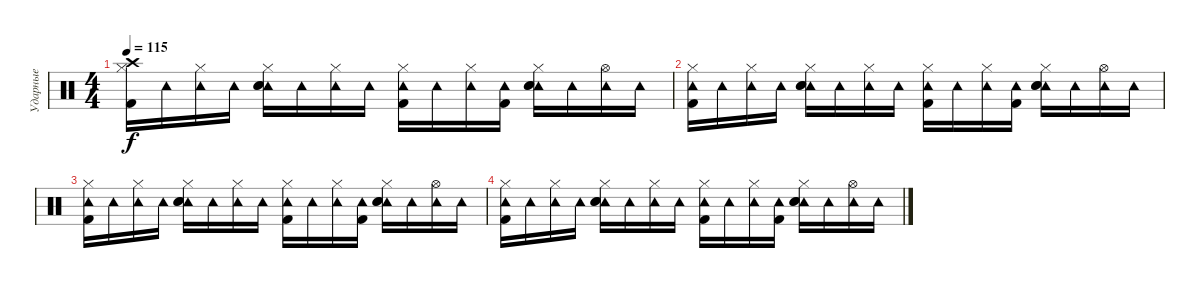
\track ("Ударные" "Ударные") {instrument percussion}
\staff {score}
\articulation defaults
\ts (4 4)
\tempo 115
\clef neutral
\ks c
("Crash high (hit)" "Hi-Hat (closed)" "Kick (hit) 2").16{dy f} "Tambourine (hit)".16 ("Tambourine (hit)" "Hi-Hat (closed)").16 "Tambourine (hit)".16 ("Tambourine (hit)" "Hi-Hat (closed)" "Electric Snare (hit)" "Snare (hit) 2").16 "Tambourine (hit)".16 ("Tambourine (hit)" "Hi-Hat (closed)").16 "Tambourine (hit)".16 ("Tambourine (hit)" "Hi-Hat (closed)" "Kick (hit) 2").16 "Tambourine (hit)".16 ("Tambourine (hit)" "Hi-Hat (closed)").16 ("Tambourine (hit)" "Kick (hit) 2").16 ("Tambourine (hit)" "Hi-Hat (closed)" "Electric Snare (hit)" "Snare (hit) 2").16 "Tambourine (hit)".16 ("Tambourine (hit)" "Hi-Hat (open)").16 "Tambourine (hit)".16 |
("Tambourine (hit)" "Hi-Hat (closed)" "Kick (hit) 2").16 "Tambourine (hit)".16 ("Tambourine (hit)" "Hi-Hat (closed)").16 "Tambourine (hit)".16 ("Tambourine (hit)" "Hi-Hat (closed)" "Electric Snare (hit)" "Snare (hit) 2").16 "Tambourine (hit)".16 ("Tambourine (hit)" "Hi-Hat (closed)").16 "Tambourine (hit)".16 ("Tambourine (hit)" "Hi-Hat (closed)" "Kick (hit) 2").16 "Tambourine (hit)".16 ("Tambourine (hit)" "Hi-Hat (closed)").16 ("Tambourine (hit)" "Kick (hit) 2").16 ("Tambourine (hit)" "Hi-Hat (closed)" "Electric Snare (hit)" "Snare (hit) 2").16 "Tambourine (hit)".16 ("Tambourine (hit)" "Hi-Hat (open)").16 "Tambourine (hit)".16 |
("Tambourine (hit)" "Hi-Hat (closed)" "Kick (hit) 2").16 "Tambourine (hit)".16 ("Tambourine (hit)" "Hi-Hat (closed)").16 "Tambourine (hit)".16 ("Tambourine (hit)" "Hi-Hat (closed)" "Electric Snare (hit)" "Snare (hit) 2").16 "Tambourine (hit)".16 ("Tambourine (hit)" "Hi-Hat (closed)").16 "Tambourine (hit)".16 ("Tambourine (hit)" "Hi-Hat (closed)" "Kick (hit) 2").16 "Tambourine (hit)".16 ("Tambourine (hit)" "Hi-Hat (closed)").16 ("Tambourine (hit)" "Kick (hit) 2").16 ("Tambourine (hit)" "Hi-Hat (closed)" "Electric Snare (hit)" "Snare (hit) 2").16 "Tambourine (hit)".16 ("Tambourine (hit)" "Hi-Hat (open)").16 "Tambourine (hit)".16 |
("Tambourine (hit)" "Hi-Hat (closed)" "Kick (hit) 2").16 "Tambourine (hit)".16 ("Tambourine (hit)" "Hi-Hat (closed)").16 "Tambourine (hit)".16 ("Tambourine (hit)" "Hi-Hat (closed)" "Electric Snare (hit)" "Snare (hit) 2").16 "Tambourine (hit)".16 ("Tambourine (hit)" "Hi-Hat (closed)").16 "Tambourine (hit)".16 ("Tambourine (hit)" "Hi-Hat (closed)" "Kick (hit) 2").16 "Tambourine (hit)".16 ("Tambourine (hit)" "Hi-Hat (closed)").16 ("Tambourine (hit)" "Kick (hit) 2").16 ("Tambourine (hit)" "Hi-Hat (closed)" "Electric Snare (hit)" "Snare (hit) 2").16 "Tambourine (hit)".16 ("Tambourine (hit)" "Hi-Hat (open)").16 "Tambourine (hit)".16
